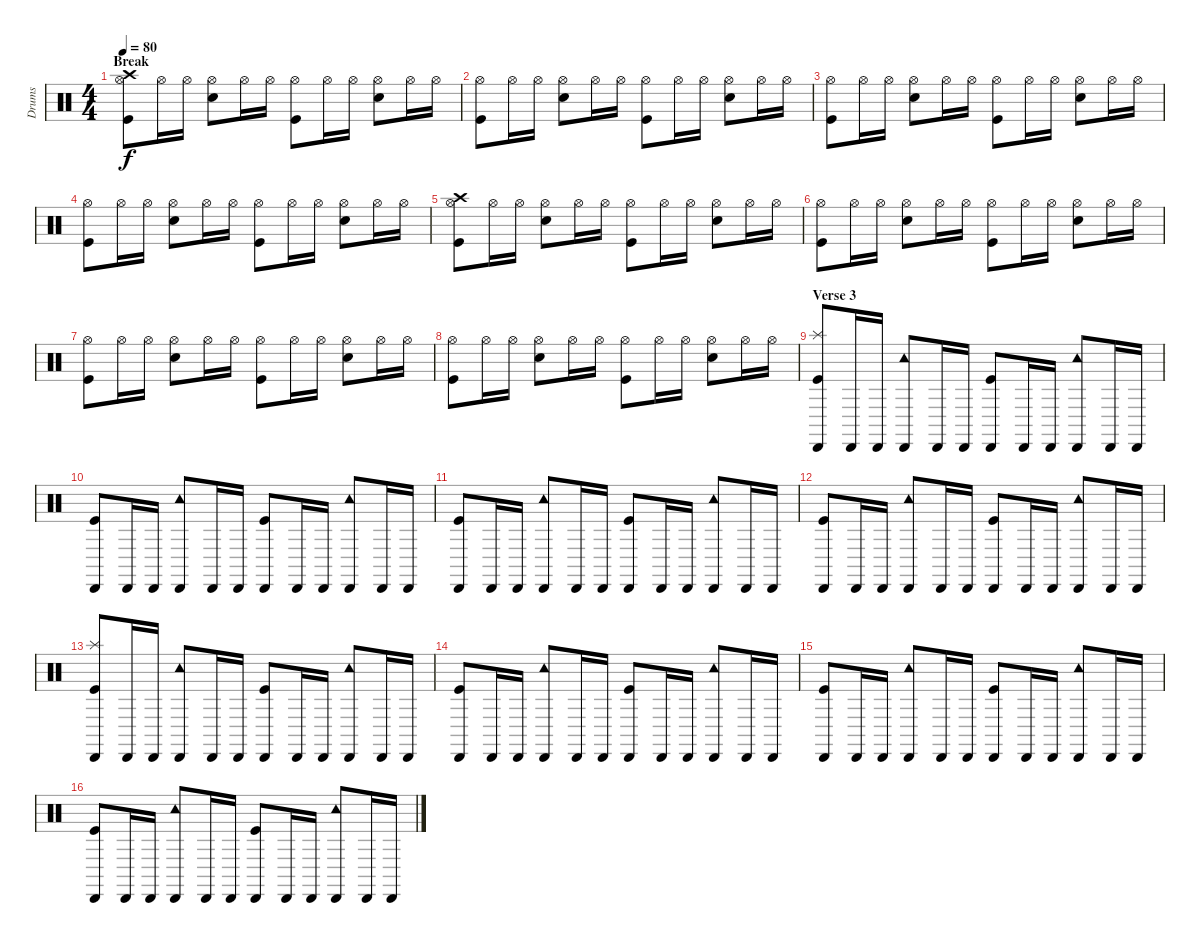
\track ("Drums" "Drums") {instrument percussion}
\staff {score}
\articulation defaults
\ts (4 4)
\section ("" "Break")
\tempo 80
\clef neutral
\ks c
("Hi-Hat (open)" "Crash high (hit)" "Kick (hit)").8{dy f} "Hi-Hat (open)".16 "Hi-Hat (open)".16 ("Hi-Hat (open)" "Snare (hit) 2").8 "Hi-Hat (open)".16 "Hi-Hat (open)".16 ("Hi-Hat (open)" "Kick (hit)").8 "Hi-Hat (open)".16 "Hi-Hat (open)".16 ("Hi-Hat (open)" "Snare (hit) 2").8 "Hi-Hat (open)".16 "Hi-Hat (open)".16 |
("Hi-Hat (open)" "Kick (hit)").8 "Hi-Hat (open)".16 "Hi-Hat (open)".16 ("Hi-Hat (open)" "Snare (hit) 2").8 "Hi-Hat (open)".16 "Hi-Hat (open)".16 ("Hi-Hat (open)" "Kick (hit)").8 "Hi-Hat (open)".16 "Hi-Hat (open)".16 ("Hi-Hat (open)" "Snare (hit) 2").8 "Hi-Hat (open)".16 "Hi-Hat (open)".16 |
("Hi-Hat (open)" "Kick (hit)").8 "Hi-Hat (open)".16 "Hi-Hat (open)".16 ("Hi-Hat (open)" "Snare (hit) 2").8 "Hi-Hat (open)".16 "Hi-Hat (open)".16 ("Hi-Hat (open)" "Kick (hit)").8 "Hi-Hat (open)".16 "Hi-Hat (open)".16 ("Hi-Hat (open)" "Snare (hit) 2").8 "Hi-Hat (open)".16 "Hi-Hat (open)".16 |
("Hi-Hat (open)" "Kick (hit)").8 "Hi-Hat (open)".16 "Hi-Hat (open)".16 ("Hi-Hat (open)" "Snare (hit) 2").8 "Hi-Hat (open)".16 "Hi-Hat (open)".16 ("Hi-Hat (open)" "Kick (hit)").8 "Hi-Hat (open)".16 "Hi-Hat (open)".16 ("Hi-Hat (open)" "Snare (hit) 2").8 "Hi-Hat (open)".16 "Hi-Hat (open)".16 |
("Hi-Hat (open)" "Crash high (hit)" "Kick (hit)").8 "Hi-Hat (open)".16 "Hi-Hat (open)".16 ("Hi-Hat (open)" "Snare (hit) 2").8 "Hi-Hat (open)".16 "Hi-Hat (open)".16 ("Hi-Hat (open)" "Kick (hit)").8 "Hi-Hat (open)".16 "Hi-Hat (open)".16 ("Hi-Hat (open)" "Snare (hit) 2").8 "Hi-Hat (open)".16 "Hi-Hat (open)".16 |
("Hi-Hat (open)" "Kick (hit)").8 "Hi-Hat (open)".16 "Hi-Hat (open)".16 ("Hi-Hat (open)" "Snare (hit) 2").8 "Hi-Hat (open)".16 "Hi-Hat (open)".16 ("Hi-Hat (open)" "Kick (hit)").8 "Hi-Hat (open)".16 "Hi-Hat (open)".16 ("Hi-Hat (open)" "Snare (hit) 2").8 "Hi-Hat (open)".16 "Hi-Hat (open)".16 |
("Hi-Hat (open)" "Kick (hit)").8 "Hi-Hat (open)".16 "Hi-Hat (open)".16 ("Hi-Hat (open)" "Snare (hit) 2").8 "Hi-Hat (open)".16 "Hi-Hat (open)".16 ("Hi-Hat (open)" "Kick (hit)").8 "Hi-Hat (open)".16 "Hi-Hat (open)".16 ("Hi-Hat (open)" "Snare (hit) 2").8 "Hi-Hat (open)".16 "Hi-Hat (open)".16 |
("Hi-Hat (open)" "Kick (hit)").8 "Hi-Hat (open)".16 "Hi-Hat (open)".16 ("Hi-Hat (open)" "Snare (hit) 2").8 "Hi-Hat (open)".16 "Hi-Hat (open)".16 ("Hi-Hat (open)" "Kick (hit)").8 "Hi-Hat (open)".16 "Hi-Hat (open)".16 ("Hi-Hat (open)" "Snare (hit) 2").8 "Hi-Hat (open)".16 "Hi-Hat (open)".16 |
\section ("" "Verse 3")
("Cabasa (hit)" "Splash (hit)" "Kick (hit)").8 "Cabasa (hit)".16 "Cabasa (hit)".16 ("Cabasa (hit)" "Tambourine (hit)").8 "Cabasa (hit)".16 "Cabasa (hit)".16 ("Cabasa (hit)" "Kick (hit)").8 "Cabasa (hit)".16 "Cabasa (hit)".16 ("Cabasa (hit)" "Tambourine (hit)").8 "Cabasa (hit)".16 "Cabasa (hit)".16 |
("Cabasa (hit)" "Kick (hit)").8 "Cabasa (hit)".16 "Cabasa (hit)".16 ("Cabasa (hit)" "Tambourine (hit)").8 "Cabasa (hit)".16 "Cabasa (hit)".16 ("Cabasa (hit)" "Kick (hit)").8 "Cabasa (hit)".16 "Cabasa (hit)".16 ("Cabasa (hit)" "Tambourine (hit)").8 "Cabasa (hit)".16 "Cabasa (hit)".16 |
("Cabasa (hit)" "Kick (hit)").8 "Cabasa (hit)".16 "Cabasa (hit)".16 ("Cabasa (hit)" "Tambourine (hit)").8 "Cabasa (hit)".16 "Cabasa (hit)".16 ("Cabasa (hit)" "Kick (hit)").8 "Cabasa (hit)".16 "Cabasa (hit)".16 ("Cabasa (hit)" "Tambourine (hit)").8 "Cabasa (hit)".16 "Cabasa (hit)".16 |
("Cabasa (hit)" "Kick (hit)").8 "Cabasa (hit)".16 "Cabasa (hit)".16 ("Cabasa (hit)" "Tambourine (hit)").8 "Cabasa (hit)".16 "Cabasa (hit)".16 ("Cabasa (hit)" "Kick (hit)").8 "Cabasa (hit)".16 "Cabasa (hit)".16 ("Cabasa (hit)" "Tambourine (hit)").8 "Cabasa (hit)".16 "Cabasa (hit)".16 |
("Cabasa (hit)" "Splash (hit)" "Kick (hit)").8 "Cabasa (hit)".16 "Cabasa (hit)".16 ("Cabasa (hit)" "Tambourine (hit)").8 "Cabasa (hit)".16 "Cabasa (hit)".16 ("Cabasa (hit)" "Kick (hit)").8 "Cabasa (hit)".16 "Cabasa (hit)".16 ("Cabasa (hit)" "Tambourine (hit)").8 "Cabasa (hit)".16 "Cabasa (hit)".16 |
("Cabasa (hit)" "Kick (hit)").8 "Cabasa (hit)".16 "Cabasa (hit)".16 ("Cabasa (hit)" "Tambourine (hit)").8 "Cabasa (hit)".16 "Cabasa (hit)".16 ("Cabasa (hit)" "Kick (hit)").8 "Cabasa (hit)".16 "Cabasa (hit)".16 ("Cabasa (hit)" "Tambourine (hit)").8 "Cabasa (hit)".16 "Cabasa (hit)".16 |
("Cabasa (hit)" "Kick (hit)").8 "Cabasa (hit)".16 "Cabasa (hit)".16 ("Cabasa (hit)" "Tambourine (hit)").8 "Cabasa (hit)".16 "Cabasa (hit)".16 ("Cabasa (hit)" "Kick (hit)").8 "Cabasa (hit)".16 "Cabasa (hit)".16 ("Cabasa (hit)" "Tambourine (hit)").8 "Cabasa (hit)".16 "Cabasa (hit)".16 |
("Cabasa (hit)" "Kick (hit)").8 "Cabasa (hit)".16 "Cabasa (hit)".16 ("Cabasa (hit)" "Tambourine (hit)").8 "Cabasa (hit)".16 "Cabasa (hit)".16 ("Cabasa (hit)" "Kick (hit)").8 "Cabasa (hit)".16 "Cabasa (hit)".16 ("Cabasa (hit)" "Tambourine (hit)").8 "Cabasa (hit)".16 "Cabasa (hit)".16
